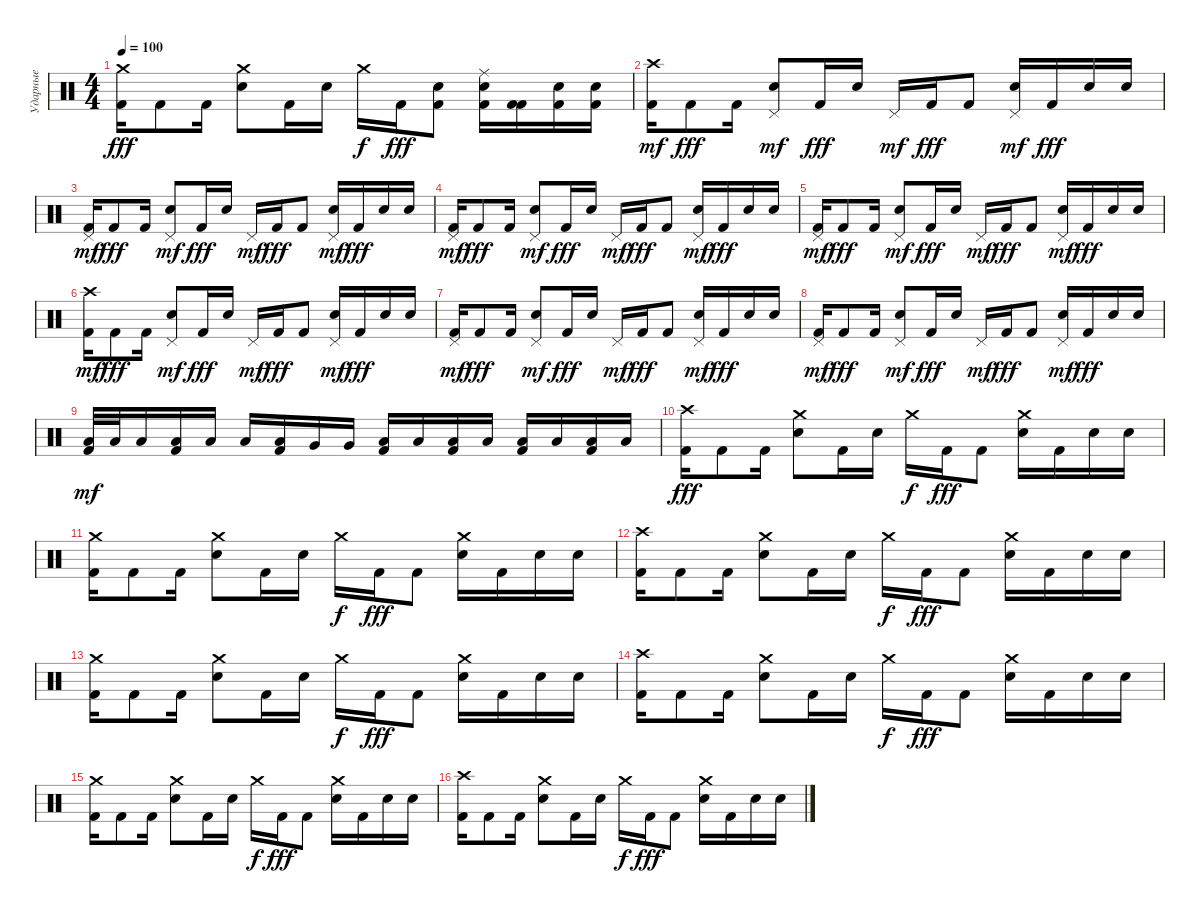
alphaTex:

\track ("Ударные" "Ударные") {instrument percussion}
\staff {score}
\articulation defaults
\ts (4 4)
\tempo 100
\clef neutral
\ks c
("Kick (hit) 2" "Crash medium (hit)").16{dy fff} "Kick (hit) 2".8 "Kick (hit) 2".16 ("Snare (hit) 2" "Crash medium (hit)").8 "Kick (hit) 2".16 "Snare (hit) 2".16 "Crash medium (hit)".16{dy f} "Kick (hit) 2".16{dy fff} ("Kick (hit) 2" "Snare (hit) 2").8 ("Snare (hit) 2" "Kick (hit) 2" "Ride (middle)").16 ("Kick (hit) 2" "Kick (hit) 2").16 ("Snare (hit) 2" "Kick (hit) 2").16 ("Snare (hit) 2" "Kick (hit) 2").16 |
("Kick (hit) 2" "Crash high (hit)").16{dy mf} "Kick (hit) 2".8{dy fff} "Kick (hit) 2".16 ("Snare (hit) 2" "Pedal Hi-Hat (hit)").8{dy mf} "Kick (hit) 2".16{dy fff} "Snare (hit) 2".16 "Pedal Hi-Hat (hit)".16{dy mf} "Kick (hit) 2".16{dy fff} "Kick (hit) 2".8 ("Snare (hit) 2" "Pedal Hi-Hat (hit)").16{dy mf} "Kick (hit) 2".16{dy fff} "Snare (hit) 2".16 "Snare (hit) 2".16 |
("Kick (hit) 2" "Pedal Hi-Hat (hit)").16{dy mf} "Kick (hit) 2".8{dy fff} "Kick (hit) 2".16 ("Snare (hit) 2" "Pedal Hi-Hat (hit)").8{dy mf} "Kick (hit) 2".16{dy fff} "Snare (hit) 2".16 "Pedal Hi-Hat (hit)".16{dy mf} "Kick (hit) 2".16{dy fff} "Kick (hit) 2".8 ("Snare (hit) 2" "Pedal Hi-Hat (hit)").16{dy mf} "Kick (hit) 2".16{dy fff} "Snare (hit) 2".16 "Snare (hit) 2".16 |
("Kick (hit) 2" "Pedal Hi-Hat (hit)").16{dy mf} "Kick (hit) 2".8{dy fff} "Kick (hit) 2".16 ("Snare (hit) 2" "Pedal Hi-Hat (hit)").8{dy mf} "Kick (hit) 2".16{dy fff} "Snare (hit) 2".16 "Pedal Hi-Hat (hit)".16{dy mf} "Kick (hit) 2".16{dy fff} "Kick (hit) 2".8 ("Snare (hit) 2" "Pedal Hi-Hat (hit)").16{dy mf} "Kick (hit) 2".16{dy fff} "Snare (hit) 2".16 "Snare (hit) 2".16 |
("Kick (hit) 2" "Pedal Hi-Hat (hit)").16{dy mf} "Kick (hit) 2".8{dy fff} "Kick (hit) 2".16 ("Snare (hit) 2" "Pedal Hi-Hat (hit)").8{dy mf} "Kick (hit) 2".16{dy fff} "Snare (hit) 2".16 "Pedal Hi-Hat (hit)".16{dy mf} "Kick (hit) 2".16{dy fff} "Kick (hit) 2".8 ("Snare (hit) 2" "Pedal Hi-Hat (hit)").16{dy mf} "Kick (hit) 2".16{dy fff} "Snare (hit) 2".16 "Snare (hit) 2".16 |
("Kick (hit) 2" "Crash high (hit)").16{dy mf} "Kick (hit) 2".8{dy fff} "Kick (hit) 2".16 ("Snare (hit) 2" "Pedal Hi-Hat (hit)").8{dy mf} "Kick (hit) 2".16{dy fff} "Snare (hit) 2".16 "Pedal Hi-Hat (hit)".16{dy mf} "Kick (hit) 2".16{dy fff} "Kick (hit) 2".8 ("Snare (hit) 2" "Pedal Hi-Hat (hit)").16{dy mf} "Kick (hit) 2".16{dy fff} "Snare (hit) 2".16 "Snare (hit) 2".16 |
("Kick (hit) 2" "Pedal Hi-Hat (hit)").16{dy mf} "Kick (hit) 2".8{dy fff} "Kick (hit) 2".16 ("Snare (hit) 2" "Pedal Hi-Hat (hit)").8{dy mf} "Kick (hit) 2".16{dy fff} "Snare (hit) 2".16 "Pedal Hi-Hat (hit)".16{dy mf} "Kick (hit) 2".16{dy fff} "Kick (hit) 2".8 ("Snare (hit) 2" "Pedal Hi-Hat (hit)").16{dy mf} "Kick (hit) 2".16{dy fff} "Snare (hit) 2".16 "Snare (hit) 2".16 |
("Kick (hit) 2" "Pedal Hi-Hat (hit)").16{dy mf} "Kick (hit) 2".8{dy fff} "Kick (hit) 2".16 ("Snare (hit) 2" "Pedal Hi-Hat (hit)").8{dy mf} "Kick (hit) 2".16{dy fff} "Snare (hit) 2".16 "Pedal Hi-Hat (hit)".16{dy mf} "Kick (hit) 2".16{dy fff} "Kick (hit) 2".8 ("Snare (hit) 2" "Pedal Hi-Hat (hit)").16{dy mf} "Kick (hit) 2".16{dy fff} "Snare (hit) 2".16 "Snare (hit) 2".16 |
("Low Floor Tom (hit)" "Kick (hit) 2").32{dy mf} "Low Floor Tom (hit)".32 "Low Floor Tom (hit)".16 ("Low Floor Tom (hit)" "Kick (hit) 2").16 "Low Floor Tom (hit)".16 "Low Tom (hit)".16 ("Low Tom (hit)" "Kick (hit) 2").16 "Very Low Tom (hit)".16 "Very Low Tom (hit)".16 ("Low Floor Tom (hit)" "Kick (hit) 2").16 "Low Floor Tom (hit)".16 ("Low Floor Tom (hit)" "Kick (hit) 2").16 "Low Floor Tom (hit)".16 ("Low Floor Tom (hit)" "Kick (hit) 2").16 "Low Floor Tom (hit)".16 ("Low Floor Tom (hit)" "Kick (hit) 2").16 "Low Floor Tom (hit)".16 |
("Kick (hit) 2" "Crash high (hit)").16{dy fff} "Kick (hit) 2".8 "Kick (hit) 2".16 ("Snare (hit) 2" "Crash medium (hit)").8 "Kick (hit) 2".16 "Snare (hit) 2".16 "Crash medium (hit)".16{dy f} "Kick (hit) 2".16{dy fff} "Kick (hit) 2".8 ("Snare (hit) 2" "Crash medium (hit)").16 "Kick (hit) 2".16 "Snare (hit) 2".16 "Snare (hit) 2".16 |
("Kick (hit) 2" "Crash medium (hit)").16 "Kick (hit) 2".8 "Kick (hit) 2".16 ("Snare (hit) 2" "Crash medium (hit)").8 "Kick (hit) 2".16 "Snare (hit) 2".16 "Crash medium (hit)".16{dy f} "Kick (hit) 2".16{dy fff} "Kick (hit) 2".8 ("Snare (hit) 2" "Crash medium (hit)").16 "Kick (hit) 2".16 "Snare (hit) 2".16 "Snare (hit) 2".16 |
("Kick (hit) 2" "Crash high (hit)").16 "Kick (hit) 2".8 "Kick (hit) 2".16 ("Snare (hit) 2" "Crash medium (hit)").8 "Kick (hit) 2".16 "Snare (hit) 2".16 "Crash medium (hit)".16{dy f} "Kick (hit) 2".16{dy fff} "Kick (hit) 2".8 ("Snare (hit) 2" "Crash medium (hit)").16 "Kick (hit) 2".16 "Snare (hit) 2".16 "Snare (hit) 2".16 |
("Kick (hit) 2" "Crash medium (hit)").16 "Kick (hit) 2".8 "Kick (hit) 2".16 ("Snare (hit) 2" "Crash medium (hit)").8 "Kick (hit) 2".16 "Snare (hit) 2".16 "Crash medium (hit)".16{dy f} "Kick (hit) 2".16{dy fff} "Kick (hit) 2".8 ("Snare (hit) 2" "Crash medium (hit)").16 "Kick (hit) 2".16 "Snare (hit) 2".16 "Snare (hit) 2".16 |
("Kick (hit) 2" "Crash high (hit)").16 "Kick (hit) 2".8 "Kick (hit) 2".16 ("Snare (hit) 2" "Crash medium (hit)").8 "Kick (hit) 2".16 "Snare (hit) 2".16 "Crash medium (hit)".16{dy f} "Kick (hit) 2".16{dy fff} "Kick (hit) 2".8 ("Snare (hit) 2" "Crash medium (hit)").16 "Kick (hit) 2".16 "Snare (hit) 2".16 "Snare (hit) 2".16 |
("Kick (hit) 2" "Crash medium (hit)").16 "Kick (hit) 2".8 "Kick (hit) 2".16 ("Snare (hit) 2" "Crash medium (hit)").8 "Kick (hit) 2".16 "Snare (hit) 2".16 "Crash medium (hit)".16{dy f} "Kick (hit) 2".16{dy fff} "Kick (hit) 2".8 ("Snare (hit) 2" "Crash medium (hit)").16 "Kick (hit) 2".16 "Snare (hit) 2".16 "Snare (hit) 2".16 |
("Kick (hit) 2" "Crash high (hit)").16 "Kick (hit) 2".8 "Kick (hit) 2".16 ("Snare (hit) 2" "Crash medium (hit)").8 "Kick (hit) 2".16 "Snare (hit) 2".16 "Crash medium (hit)".16{dy f} "Kick (hit) 2".16{dy fff} "Kick (hit) 2".8 ("Snare (hit) 2" "Crash medium (hit)").16 "Kick (hit) 2".16 "Snare (hit) 2".16 "Snare (hit) 2".16
